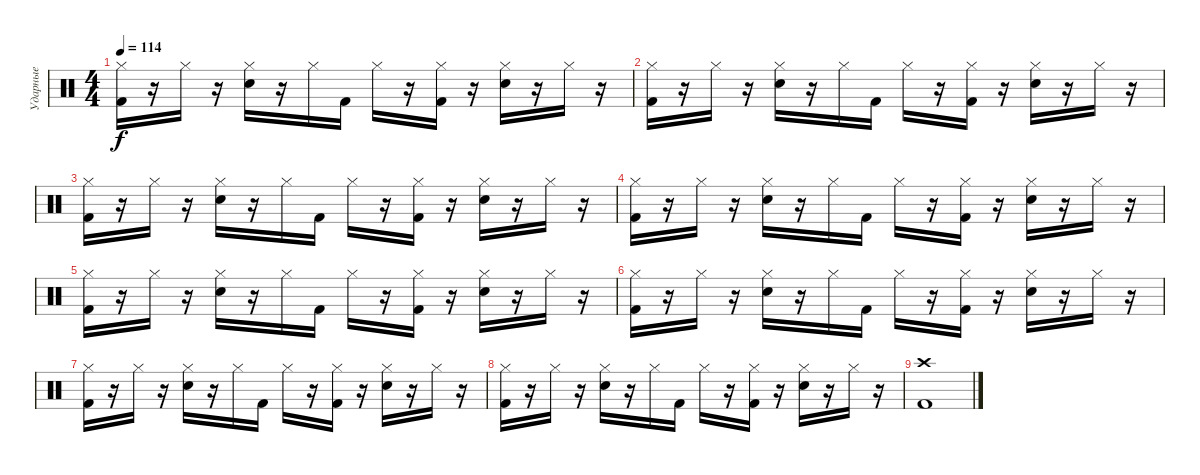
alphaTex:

\track ("Ударные" "Ударные") {instrument percussion}
\staff {score}
\articulation defaults
\ts (4 4)
\tempo 114
\clef neutral
\ks c
("Kick (hit) 2" "Hi-Hat (closed)").16{dy f} r.16 "Hi-Hat (closed)".16 r.16 ("Electric Snare (hit)" "Hi-Hat (closed)").16 r.16 "Hi-Hat (closed)".16 "Kick (hit) 2".16 "Hi-Hat (closed)".16 r.16 ("Kick (hit) 2" "Hi-Hat (closed)").16 r.16 ("Electric Snare (hit)" "Hi-Hat (closed)").16 r.16 "Hi-Hat (closed)".16 r.16 |
("Kick (hit) 2" "Hi-Hat (closed)").16 r.16 "Hi-Hat (closed)".16 r.16 ("Electric Snare (hit)" "Hi-Hat (closed)").16 r.16 "Hi-Hat (closed)".16 "Kick (hit) 2".16 "Hi-Hat (closed)".16 r.16 ("Kick (hit) 2" "Hi-Hat (closed)").16 r.16 ("Electric Snare (hit)" "Hi-Hat (closed)").16 r.16 "Hi-Hat (closed)".16 r.16 |
("Kick (hit) 2" "Hi-Hat (closed)").16 r.16 "Hi-Hat (closed)".16 r.16 ("Electric Snare (hit)" "Hi-Hat (closed)").16 r.16 "Hi-Hat (closed)".16 "Kick (hit) 2".16 "Hi-Hat (closed)".16 r.16 ("Kick (hit) 2" "Hi-Hat (closed)").16 r.16 ("Electric Snare (hit)" "Hi-Hat (closed)").16 r.16 "Hi-Hat (closed)".16 r.16 |
("Kick (hit) 2" "Hi-Hat (closed)").16 r.16 "Hi-Hat (closed)".16 r.16 ("Electric Snare (hit)" "Hi-Hat (closed)").16 r.16 "Hi-Hat (closed)".16 "Kick (hit) 2".16 "Hi-Hat (closed)".16 r.16 ("Kick (hit) 2" "Hi-Hat (closed)").16 r.16 ("Electric Snare (hit)" "Hi-Hat (closed)").16 r.16 "Hi-Hat (closed)".16 r.16 |
("Kick (hit) 2" "Hi-Hat (closed)").16 r.16 "Hi-Hat (closed)".16 r.16 ("Electric Snare (hit)" "Hi-Hat (closed)").16 r.16 "Hi-Hat (closed)".16 "Kick (hit) 2".16 "Hi-Hat (closed)".16 r.16 ("Kick (hit) 2" "Hi-Hat (closed)").16 r.16 ("Electric Snare (hit)" "Hi-Hat (closed)").16 r.16 "Hi-Hat (closed)".16 r.16 |
("Kick (hit) 2" "Hi-Hat (closed)").16 r.16 "Hi-Hat (closed)".16 r.16 ("Electric Snare (hit)" "Hi-Hat (closed)").16 r.16 "Hi-Hat (closed)".16 "Kick (hit) 2".16 "Hi-Hat (closed)".16 r.16 ("Kick (hit) 2" "Hi-Hat (closed)").16 r.16 ("Electric Snare (hit)" "Hi-Hat (closed)").16 r.16 "Hi-Hat (closed)".16 r.16 |
("Kick (hit) 2" "Hi-Hat (closed)").16 r.16 "Hi-Hat (closed)".16 r.16 ("Electric Snare (hit)" "Hi-Hat (closed)").16 r.16 "Hi-Hat (closed)".16 "Kick (hit) 2".16 "Hi-Hat (closed)".16 r.16 ("Kick (hit) 2" "Hi-Hat (closed)").16 r.16 ("Electric Snare (hit)" "Hi-Hat (closed)").16 r.16 "Hi-Hat (closed)".16 r.16 |
("Kick (hit) 2" "Hi-Hat (closed)").16 r.16 "Hi-Hat (closed)".16 r.16 ("Electric Snare (hit)" "Hi-Hat (closed)").16 r.16 "Hi-Hat (closed)".16 "Kick (hit) 2".16 "Hi-Hat (closed)".16 r.16 ("Kick (hit) 2" "Hi-Hat (closed)").16 r.16 ("Electric Snare (hit)" "Hi-Hat (closed)").16 r.16 "Hi-Hat (closed)".16 r.16 |
("Kick (hit) 2" "Crash high (hit)").1
